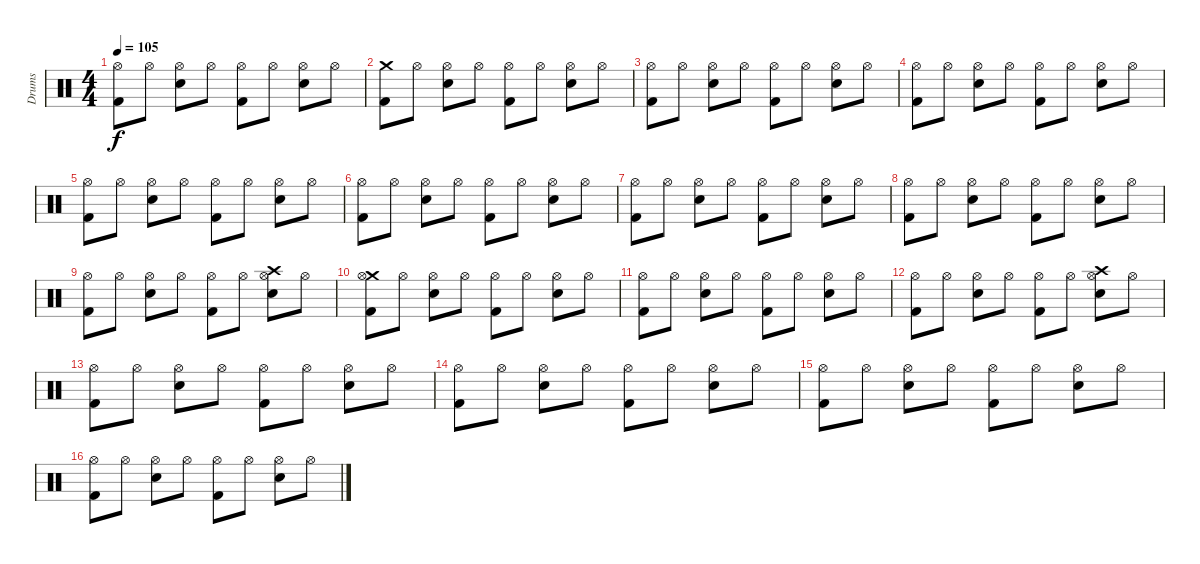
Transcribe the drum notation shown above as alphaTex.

\track ("Drums" "Drums") {instrument percussion}
\staff {score}
\articulation defaults
\ts (4 4)
\tempo 105
\clef neutral
\ks c
("Hi-Hat (open)" "Kick (hit) 2").8{dy f} "Hi-Hat (open)".8 ("Hi-Hat (open)" "Electric Snare (hit)").8 "Hi-Hat (open)".8 ("Hi-Hat (open)" "Kick (hit) 2").8 "Hi-Hat (open)".8 ("Hi-Hat (open)" "Electric Snare (hit)").8 "Hi-Hat (open)".8 |
("Crash medium (hit)" "Kick (hit) 2").8 "Hi-Hat (open)".8 ("Hi-Hat (open)" "Electric Snare (hit)").8 "Hi-Hat (open)".8 ("Hi-Hat (open)" "Kick (hit) 2").8 "Hi-Hat (open)".8 ("Hi-Hat (open)" "Electric Snare (hit)").8 "Hi-Hat (open)".8 |
("Hi-Hat (open)" "Kick (hit) 2").8 "Hi-Hat (open)".8 ("Hi-Hat (open)" "Electric Snare (hit)").8 "Hi-Hat (open)".8 ("Hi-Hat (open)" "Kick (hit) 2").8 "Hi-Hat (open)".8 ("Hi-Hat (open)" "Electric Snare (hit)").8 "Hi-Hat (open)".8 |
("Hi-Hat (open)" "Kick (hit) 2").8 "Hi-Hat (open)".8 ("Hi-Hat (open)" "Electric Snare (hit)").8 "Hi-Hat (open)".8 ("Hi-Hat (open)" "Kick (hit) 2").8 "Hi-Hat (open)".8 ("Hi-Hat (open)" "Electric Snare (hit)").8 "Hi-Hat (open)".8 |
("Hi-Hat (open)" "Kick (hit) 2").8 "Hi-Hat (open)".8 ("Hi-Hat (open)" "Electric Snare (hit)").8 "Hi-Hat (open)".8 ("Hi-Hat (open)" "Kick (hit) 2").8 "Hi-Hat (open)".8 ("Hi-Hat (open)" "Electric Snare (hit)").8 "Hi-Hat (open)".8 |
("Hi-Hat (open)" "Kick (hit) 2").8 "Hi-Hat (open)".8 ("Hi-Hat (open)" "Electric Snare (hit)").8 "Hi-Hat (open)".8 ("Hi-Hat (open)" "Kick (hit) 2").8 "Hi-Hat (open)".8 ("Hi-Hat (open)" "Electric Snare (hit)").8 "Hi-Hat (open)".8 |
("Hi-Hat (open)" "Kick (hit) 2").8 "Hi-Hat (open)".8 ("Hi-Hat (open)" "Electric Snare (hit)").8 "Hi-Hat (open)".8 ("Hi-Hat (open)" "Kick (hit) 2").8 "Hi-Hat (open)".8 ("Hi-Hat (open)" "Electric Snare (hit)").8 "Hi-Hat (open)".8 |
("Hi-Hat (open)" "Kick (hit) 2").8 "Hi-Hat (open)".8 ("Hi-Hat (open)" "Electric Snare (hit)").8 "Hi-Hat (open)".8 ("Hi-Hat (open)" "Kick (hit) 2").8 "Hi-Hat (open)".8 ("Hi-Hat (open)" "Electric Snare (hit)").8 "Hi-Hat (open)".8 |
("Hi-Hat (open)" "Kick (hit) 2").8 "Hi-Hat (open)".8 ("Hi-Hat (open)" "Electric Snare (hit)").8 "Hi-Hat (open)".8 ("Hi-Hat (open)" "Kick (hit) 2").8 "Hi-Hat (open)".8 ("Crash high (hit)" "Hi-Hat (open)" "Electric Snare (hit)").8 "Hi-Hat (open)".8 |
("Crash medium (hit)" "Hi-Hat (open)" "Kick (hit) 2").8 "Hi-Hat (open)".8 ("Hi-Hat (open)" "Electric Snare (hit)").8 "Hi-Hat (open)".8 ("Hi-Hat (open)" "Kick (hit) 2").8 "Hi-Hat (open)".8 ("Hi-Hat (open)" "Electric Snare (hit)").8 "Hi-Hat (open)".8 |
("Hi-Hat (open)" "Kick (hit) 2").8 "Hi-Hat (open)".8 ("Hi-Hat (open)" "Electric Snare (hit)").8 "Hi-Hat (open)".8 ("Hi-Hat (open)" "Kick (hit) 2").8 "Hi-Hat (open)".8 ("Hi-Hat (open)" "Electric Snare (hit)").8 "Hi-Hat (open)".8 |
("Hi-Hat (open)" "Kick (hit) 2").8 "Hi-Hat (open)".8 ("Hi-Hat (open)" "Electric Snare (hit)").8 "Hi-Hat (open)".8 ("Hi-Hat (open)" "Kick (hit) 2").8 "Hi-Hat (open)".8 ("Crash high (hit)" "Hi-Hat (open)" "Electric Snare (hit)").8 "Hi-Hat (open)".8 |
("Hi-Hat (open)" "Kick (hit) 2").8 "Hi-Hat (open)".8 ("Hi-Hat (open)" "Electric Snare (hit)").8 "Hi-Hat (open)".8 ("Hi-Hat (open)" "Kick (hit) 2").8 "Hi-Hat (open)".8 ("Hi-Hat (open)" "Electric Snare (hit)").8 "Hi-Hat (open)".8 |
("Hi-Hat (open)" "Kick (hit) 2").8 "Hi-Hat (open)".8 ("Hi-Hat (open)" "Electric Snare (hit)").8 "Hi-Hat (open)".8 ("Hi-Hat (open)" "Kick (hit) 2").8 "Hi-Hat (open)".8 ("Hi-Hat (open)" "Electric Snare (hit)").8 "Hi-Hat (open)".8 |
("Hi-Hat (open)" "Kick (hit) 2").8 "Hi-Hat (open)".8 ("Hi-Hat (open)" "Electric Snare (hit)").8 "Hi-Hat (open)".8 ("Hi-Hat (open)" "Kick (hit) 2").8 "Hi-Hat (open)".8 ("Hi-Hat (open)" "Electric Snare (hit)").8 "Hi-Hat (open)".8 |
("Hi-Hat (open)" "Kick (hit) 2").8 "Hi-Hat (open)".8 ("Hi-Hat (open)" "Electric Snare (hit)").8 "Hi-Hat (open)".8 ("Hi-Hat (open)" "Kick (hit) 2").8 "Hi-Hat (open)".8 ("Hi-Hat (open)" "Electric Snare (hit)").8 "Hi-Hat (open)".8
